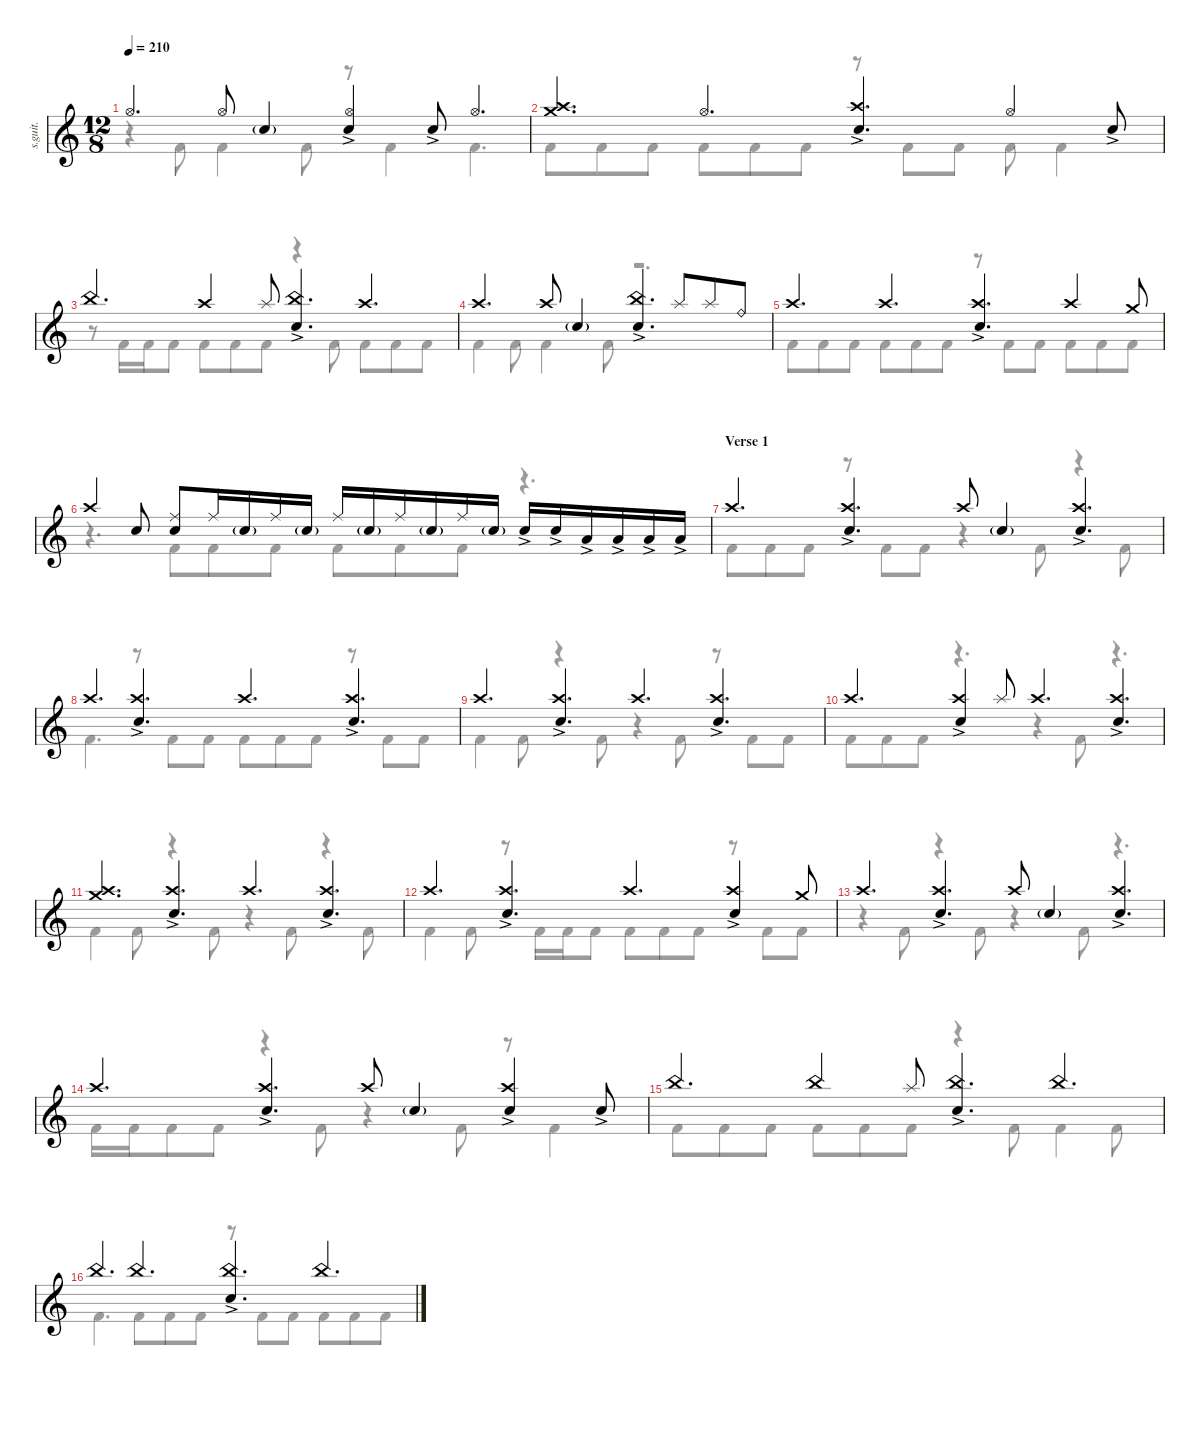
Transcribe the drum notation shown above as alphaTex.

\defaultSystemsLayout 4
\hideDynamics
\bracketExtendMode nobrackets
\track ("Percussion" "s.guit.") {instrument percussion}
\staff {score}
\articulation defaults
\voice
\ts (12 8)
\tempo 210
\clef g2
\ks c "Hi-Hat (open)".4{d lyrics (0 "") lyrics (1 "") lyrics (2 "") lyrics (3 "") lyrics (4 "") dy f} "Hi-Hat (open)".8{lyrics (0 "") lyrics (1 "") lyrics (2 "") lyrics (3 "") lyrics (4 "")} "Snare (hit) 2"{g}.4{lyrics (0 "") lyrics (1 "") lyrics (2 "") lyrics (3 "") lyrics (4 "") dy ff}
("Hi-Hat (open)" "Snare (hit) 2"{ac}).4{lyrics (0 "") lyrics (1 "") lyrics (2 "") lyrics (3 "") lyrics (4 "") dy f} "Snare (hit) 2"{ac}.8{lyrics (0 "") lyrics (1 "") lyrics (2 "") lyrics (3 "") lyrics (4 "") dy mf} "Hi-Hat (open)".4{d lyrics (0 "") lyrics (1 "") lyrics (2 "") lyrics (3 "") lyrics (4 "") dy f} |
("Crash high (hit)" "Crash medium (hit)").4{d lyrics (0 "") lyrics (1 "") lyrics (2 "") lyrics (3 "") lyrics (4 "")} "Hi-Hat (open)".4{d lyrics (0 "") lyrics (1 "") lyrics (2 "") lyrics (3 "") lyrics (4 "")} ("Snare (hit) 2"{ac} "Crash high (hit)").4{d lyrics (0 "") lyrics (1 "") lyrics (2 "") lyrics (3 "") lyrics (4 "")} "Hi-Hat (open)".4{lyrics (0 "") lyrics (1 "") lyrics (2 "") lyrics (3 "") lyrics (4 "")} "Snare (hit) 2"{ac}.8{lyrics (0 "") lyrics (1 "") lyrics (2 "") lyrics (3 "") lyrics (4 "") dy mf} |
"China (hit)".4{d lyrics (0 "") lyrics (1 "") lyrics (2 "") lyrics (3 "") lyrics (4 "") dy f} "Crash high (hit)".4{lyrics (0 "") lyrics (1 "") lyrics (2 "") lyrics (3 "") lyrics (4 "")} "Splash (hit)".8{lyrics (0 "") lyrics (1 "") lyrics (2 "") lyrics (3 "") lyrics (4 "")} ("China (hit)" "Snare (hit) 2"{ac}).4{d lyrics (0 "") lyrics (1 "") lyrics (2 "") lyrics (3 "") lyrics (4 "")} "Crash high (hit)".4{d lyrics (0 "") lyrics (1 "") lyrics (2 "") lyrics (3 "") lyrics (4 "")} |
"Crash high (hit)".4{d lyrics (0 "") lyrics (1 "") lyrics (2 "") lyrics (3 "") lyrics (4 "")} "Crash high (hit)".8{lyrics (0 "") lyrics (1 "") lyrics (2 "") lyrics (3 "") lyrics (4 "")} "Snare (hit) 2"{g}.4{lyrics (0 "") lyrics (1 "") lyrics (2 "") lyrics (3 "") lyrics (4 "") dy ff} ("Snare (hit) 2"{ac} "China (hit)").4{d lyrics (0 "") lyrics (1 "") lyrics (2 "") lyrics (3 "") lyrics (4 "") dy f} "Splash (hit)".8{lyrics (0 "") lyrics (1 "") lyrics (2 "") lyrics (3 "") lyrics (4 "")} "Splash (hit)".8{lyrics (0 "") lyrics (1 "") lyrics (2 "") lyrics (3 "") lyrics (4 "")} "Ride (bell)".8{lyrics (0 "") lyrics (1 "") lyrics (2 "") lyrics (3 "") lyrics (4 "")} |
"Crash high (hit)".4{d lyrics (0 "") lyrics (1 "") lyrics (2 "") lyrics (3 "") lyrics (4 "")} "Crash high (hit)".4{d lyrics (0 "") lyrics (1 "") lyrics (2 "") lyrics (3 "") lyrics (4 "")} ("Crash high (hit)" "Snare (hit) 2"{ac}).4{d lyrics (0 "") lyrics (1 "") lyrics (2 "") lyrics (3 "") lyrics (4 "")} "Crash high (hit)".4{lyrics (0 "") lyrics (1 "") lyrics (2 "") lyrics (3 "") lyrics (4 "")} "Crash medium (hit)".8{lyrics (0 "") lyrics (1 "") lyrics (2 "") lyrics (3 "") lyrics (4 "")} |
"Crash high (hit)".4{lyrics (0 "") lyrics (1 "") lyrics (2 "") lyrics (3 "") lyrics (4 "")} "Snare (hit) 2".8{lyrics (0 "") lyrics (1 "") lyrics (2 "") lyrics (3 "") lyrics (4 "")} ("Snare (hit) 2" "Ride (middle)").8{lyrics (0 "") lyrics (1 "") lyrics (2 "") lyrics (3 "") lyrics (4 "")} "Ride (middle)".16{lyrics (0 "") lyrics (1 "") lyrics (2 "") lyrics (3 "") lyrics (4 "")} "Snare (hit) 2"{g}.16{lyrics (0 "") lyrics (1 "") lyrics (2 "") lyrics (3 "") lyrics (4 "") dy ff} "Ride (middle)".16{lyrics (0 "") lyrics (1 "") lyrics (2 "") lyrics (3 "") lyrics (4 "") dy f} "Snare (hit) 2"{g}.16{lyrics (0 "") lyrics (1 "") lyrics (2 "") lyrics (3 "") lyrics (4 "") dy ff} "Ride (middle)".16{lyrics (0 "") lyrics (1 "") lyrics (2 "") lyrics (3 "") lyrics (4 "") dy f} "Snare (hit) 2"{g}.16{lyrics (0 "") lyrics (1 "") lyrics (2 "") lyrics (3 "") lyrics (4 "") dy ff} "Ride (middle)".16{lyrics (0 "") lyrics (1 "") lyrics (2 "") lyrics (3 "") lyrics (4 "") dy f} "Snare (hit) 2"{g}.16{lyrics (0 "") lyrics (1 "") lyrics (2 "") lyrics (3 "") lyrics (4 "") dy ff} "Ride (middle)".16{lyrics (0 "") lyrics (1 "") lyrics (2 "") lyrics (3 "") lyrics (4 "") dy f} "Snare (hit) 2"{g}.16{lyrics (0 "") lyrics (1 "") lyrics (2 "") lyrics (3 "") lyrics (4 "") dy ff} "Snare (hit) 2"{ac}.16{lyrics (0 "") lyrics (1 "") lyrics (2 "") lyrics (3 "") lyrics (4 "") dy mf} "Snare (hit) 2"{ac}.16{lyrics (0 "") lyrics (1 "") lyrics (2 "") lyrics (3 "") lyrics (4 "")} "Low Tom (hit)"{ac}.16{lyrics (0 "") lyrics (1 "") lyrics (2 "") lyrics (3 "") lyrics (4 "")} "Low Tom (hit)"{ac}.16{lyrics (0 "") lyrics (1 "") lyrics (2 "") lyrics (3 "") lyrics (4 "")} "Low Tom (hit)"{ac}.16{lyrics (0 "") lyrics (1 "") lyrics (2 "") lyrics (3 "") lyrics (4 "")} "Low Tom (hit)"{ac}.16{lyrics (0 "") lyrics (1 "") lyrics (2 "") lyrics (3 "") lyrics (4 "")} |
\section ("" "Verse 1")
"Crash high (hit)".4{d lyrics (0 "") lyrics (1 "") lyrics (2 "") lyrics (3 "") lyrics (4 "") dy f} ("Crash high (hit)" "Snare (hit) 2"{ac}).4{d lyrics (0 "") lyrics (1 "") lyrics (2 "") lyrics (3 "") lyrics (4 "")} "Crash high (hit)".8{lyrics (0 "") lyrics (1 "") lyrics (2 "") lyrics (3 "") lyrics (4 "")} "Snare (hit) 2"{g}.4{lyrics (0 "") lyrics (1 "") lyrics (2 "") lyrics (3 "") lyrics (4 "") dy ff} ("Snare (hit) 2"{ac} "Crash high (hit)").4{d lyrics (0 "") lyrics (1 "") lyrics (2 "") lyrics (3 "") lyrics (4 "") dy f} |
"Crash high (hit)".4{d lyrics (0 "") lyrics (1 "") lyrics (2 "") lyrics (3 "") lyrics (4 "")} ("Crash high (hit)" "Snare (hit) 2"{ac}).4{d lyrics (0 "") lyrics (1 "") lyrics (2 "") lyrics (3 "") lyrics (4 "")} "Crash high (hit)".4{d lyrics (0 "") lyrics (1 "") lyrics (2 "") lyrics (3 "") lyrics (4 "")} ("Crash high (hit)" "Snare (hit) 2"{ac}).4{d lyrics (0 "") lyrics (1 "") lyrics (2 "") lyrics (3 "") lyrics (4 "")} |
"Crash high (hit)".4{d lyrics (0 "") lyrics (1 "") lyrics (2 "") lyrics (3 "") lyrics (4 "")} ("Crash high (hit)" "Snare (hit) 2"{ac}).4{d lyrics (0 "") lyrics (1 "") lyrics (2 "") lyrics (3 "") lyrics (4 "")} "Crash high (hit)".4{d lyrics (0 "") lyrics (1 "") lyrics (2 "") lyrics (3 "") lyrics (4 "")} ("Crash high (hit)" "Snare (hit) 2"{ac}).4{d lyrics (0 "") lyrics (1 "") lyrics (2 "") lyrics (3 "") lyrics (4 "")} |
"Crash high (hit)".4{d lyrics (0 "") lyrics (1 "") lyrics (2 "") lyrics (3 "") lyrics (4 "")} ("Crash high (hit)" "Snare (hit) 2"{ac}).4{lyrics (0 "") lyrics (1 "") lyrics (2 "") lyrics (3 "") lyrics (4 "")} "Splash (hit)".8{lyrics (0 "") lyrics (1 "") lyrics (2 "") lyrics (3 "") lyrics (4 "")} "Crash high (hit)".4{d lyrics (0 "") lyrics (1 "") lyrics (2 "") lyrics (3 "") lyrics (4 "")} ("Crash high (hit)" "Snare (hit) 2"{ac}).4{d lyrics (0 "") lyrics (1 "") lyrics (2 "") lyrics (3 "") lyrics (4 "")} |
("Crash high (hit)" "Crash medium (hit)").4{d lyrics (0 "") lyrics (1 "") lyrics (2 "") lyrics (3 "") lyrics (4 "")} ("Crash high (hit)" "Snare (hit) 2"{ac}).4{d lyrics (0 "") lyrics (1 "") lyrics (2 "") lyrics (3 "") lyrics (4 "")} "Crash high (hit)".4{d lyrics (0 "") lyrics (1 "") lyrics (2 "") lyrics (3 "") lyrics (4 "")} ("Crash high (hit)" "Snare (hit) 2"{ac}).4{d lyrics (0 "") lyrics (1 "") lyrics (2 "") lyrics (3 "") lyrics (4 "")} |
"Crash high (hit)".4{d lyrics (0 "") lyrics (1 "") lyrics (2 "") lyrics (3 "") lyrics (4 "")} ("Crash high (hit)" "Snare (hit) 2"{ac}).4{d lyrics (0 "") lyrics (1 "") lyrics (2 "") lyrics (3 "") lyrics (4 "")} "Crash high (hit)".4{d lyrics (0 "") lyrics (1 "") lyrics (2 "") lyrics (3 "") lyrics (4 "")} ("Crash high (hit)" "Snare (hit) 2"{ac}).4{lyrics (0 "") lyrics (1 "") lyrics (2 "") lyrics (3 "") lyrics (4 "")} "Crash medium (hit)".8{lyrics (0 "") lyrics (1 "") lyrics (2 "") lyrics (3 "") lyrics (4 "")} |
"Crash high (hit)".4{d lyrics (0 "") lyrics (1 "") lyrics (2 "") lyrics (3 "") lyrics (4 "")} ("Crash high (hit)" "Snare (hit) 2"{ac}).4{d lyrics (0 "") lyrics (1 "") lyrics (2 "") lyrics (3 "") lyrics (4 "")} "Crash high (hit)".8{lyrics (0 "") lyrics (1 "") lyrics (2 "") lyrics (3 "") lyrics (4 "")} "Snare (hit) 2"{g}.4{lyrics (0 "") lyrics (1 "") lyrics (2 "") lyrics (3 "") lyrics (4 "") dy ff} ("Snare (hit) 2"{ac} "Crash high (hit)").4{d lyrics (0 "") lyrics (1 "") lyrics (2 "") lyrics (3 "") lyrics (4 "") dy f} |
"Crash high (hit)".4{d lyrics (0 "") lyrics (1 "") lyrics (2 "") lyrics (3 "") lyrics (4 "")} ("Crash high (hit)" "Snare (hit) 2"{ac}).4{d lyrics (0 "") lyrics (1 "") lyrics (2 "") lyrics (3 "") lyrics (4 "")} "Crash high (hit)".8{lyrics (0 "") lyrics (1 "") lyrics (2 "") lyrics (3 "") lyrics (4 "")} "Snare (hit) 2"{g}.4{lyrics (0 "") lyrics (1 "") lyrics (2 "") lyrics (3 "") lyrics (4 "") dy ff} ("Crash high (hit)" "Snare (hit) 2"{ac}).4{lyrics (0 "") lyrics (1 "") lyrics (2 "") lyrics (3 "") lyrics (4 "") dy f} "Snare (hit) 2"{ac}.8{lyrics (0 "") lyrics (1 "") lyrics (2 "") lyrics (3 "") lyrics (4 "") dy mf} |
"China (hit)".4{d lyrics (0 "") lyrics (1 "") lyrics (2 "") lyrics (3 "") lyrics (4 "") dy f} "China (hit)".4{lyrics (0 "") lyrics (1 "") lyrics (2 "") lyrics (3 "") lyrics (4 "")} "Splash (hit)".8{lyrics (0 "") lyrics (1 "") lyrics (2 "") lyrics (3 "") lyrics (4 "")} ("China (hit)" "Snare (hit) 2"{ac}).4{d lyrics (0 "") lyrics (1 "") lyrics (2 "") lyrics (3 "") lyrics (4 "")} "China (hit)".4{d lyrics (0 "") lyrics (1 "") lyrics (2 "") lyrics (3 "") lyrics (4 "")} |
"China (hit)".4{d lyrics (0 "") lyrics (1 "") lyrics (2 "") lyrics (3 "") lyrics (4 "")} "China (hit)".4{d lyrics (0 "") lyrics (1 "") lyrics (2 "") lyrics (3 "") lyrics (4 "")} ("China (hit)" "Snare (hit) 2"{ac}).4{d lyrics (0 "") lyrics (1 "") lyrics (2 "") lyrics (3 "") lyrics (4 "")} "China (hit)".4{d lyrics (0 "") lyrics (1 "") lyrics (2 "") lyrics (3 "") lyrics (4 "")}
\voice
\clef g2
\ottava regular
\simile none
\ks c
r.4{dy f} "Kick (hit) 2".8{lyrics (0 "") lyrics (1 "") lyrics (2 "") lyrics (3 "") lyrics (4 "")} "Kick (hit) 2".4{lyrics (0 "") lyrics (1 "") lyrics (2 "") lyrics (3 "") lyrics (4 "")} "Kick (hit) 2".8{lyrics (0 "") lyrics (1 "") lyrics (2 "") lyrics (3 "") lyrics (4 "")} r.8 "Kick (hit) 2".4{lyrics (0 "") lyrics (1 "") lyrics (2 "") lyrics (3 "") lyrics (4 "")} "Kick (hit) 2".4{d lyrics (0 "") lyrics (1 "") lyrics (2 "") lyrics (3 "") lyrics (4 "")} |
"Kick (hit) 2".8{lyrics (0 "") lyrics (1 "") lyrics (2 "") lyrics (3 "") lyrics (4 "")} "Kick (hit) 2".8{lyrics (0 "") lyrics (1 "") lyrics (2 "") lyrics (3 "") lyrics (4 "")} "Kick (hit) 2".8{lyrics (0 "") lyrics (1 "") lyrics (2 "") lyrics (3 "") lyrics (4 "")} "Kick (hit) 2".8{lyrics (0 "") lyrics (1 "") lyrics (2 "") lyrics (3 "") lyrics (4 "")} "Kick (hit) 2".8{lyrics (0 "") lyrics (1 "") lyrics (2 "") lyrics (3 "") lyrics (4 "")} "Kick (hit) 2".8{lyrics (0 "") lyrics (1 "") lyrics (2 "") lyrics (3 "") lyrics (4 "")} r.8 "Kick (hit) 2".8{lyrics (0 "") lyrics (1 "") lyrics (2 "") lyrics (3 "") lyrics (4 "")} "Kick (hit) 2".8{lyrics (0 "") lyrics (1 "") lyrics (2 "") lyrics (3 "") lyrics (4 "")} "Kick (hit) 2".8{lyrics (0 "") lyrics (1 "") lyrics (2 "") lyrics (3 "") lyrics (4 "")} "Kick (hit) 2".4{lyrics (0 "") lyrics (1 "") lyrics (2 "") lyrics (3 "") lyrics (4 "")} |
r.8 "Kick (hit) 2".16{lyrics (0 "") lyrics (1 "") lyrics (2 "") lyrics (3 "") lyrics (4 "")} "Kick (hit) 2".16{lyrics (0 "") lyrics (1 "") lyrics (2 "") lyrics (3 "") lyrics (4 "")} "Kick (hit) 2".8{lyrics (0 "") lyrics (1 "") lyrics (2 "") lyrics (3 "") lyrics (4 "")} "Kick (hit) 2".8{lyrics (0 "") lyrics (1 "") lyrics (2 "") lyrics (3 "") lyrics (4 "")} "Kick (hit) 2".8{lyrics (0 "") lyrics (1 "") lyrics (2 "") lyrics (3 "") lyrics (4 "")} "Kick (hit) 2".8{lyrics (0 "") lyrics (1 "") lyrics (2 "") lyrics (3 "") lyrics (4 "")} r.4 "Kick (hit) 2".8{lyrics (0 "") lyrics (1 "") lyrics (2 "") lyrics (3 "") lyrics (4 "")} "Kick (hit) 2".8{lyrics (0 "") lyrics (1 "") lyrics (2 "") lyrics (3 "") lyrics (4 "")} "Kick (hit) 2".8{lyrics (0 "") lyrics (1 "") lyrics (2 "") lyrics (3 "") lyrics (4 "")} "Kick (hit) 2".8{lyrics (0 "") lyrics (1 "") lyrics (2 "") lyrics (3 "") lyrics (4 "")} |
"Kick (hit) 2".4{lyrics (0 "") lyrics (1 "") lyrics (2 "") lyrics (3 "") lyrics (4 "")} "Kick (hit) 2".8{lyrics (0 "") lyrics (1 "") lyrics (2 "") lyrics (3 "") lyrics (4 "")} "Kick (hit) 2".4{lyrics (0 "") lyrics (1 "") lyrics (2 "") lyrics (3 "") lyrics (4 "")} "Kick (hit) 2".8{lyrics (0 "") lyrics (1 "") lyrics (2 "") lyrics (3 "") lyrics (4 "")} r.2{d} |
"Kick (hit) 2".8{lyrics (0 "") lyrics (1 "") lyrics (2 "") lyrics (3 "") lyrics (4 "")} "Kick (hit) 2".8{lyrics (0 "") lyrics (1 "") lyrics (2 "") lyrics (3 "") lyrics (4 "")} "Kick (hit) 2".8{lyrics (0 "") lyrics (1 "") lyrics (2 "") lyrics (3 "") lyrics (4 "")} "Kick (hit) 2".8{lyrics (0 "") lyrics (1 "") lyrics (2 "") lyrics (3 "") lyrics (4 "")} "Kick (hit) 2".8{lyrics (0 "") lyrics (1 "") lyrics (2 "") lyrics (3 "") lyrics (4 "")} "Kick (hit) 2".8{lyrics (0 "") lyrics (1 "") lyrics (2 "") lyrics (3 "") lyrics (4 "")} r.8 "Kick (hit) 2".8{lyrics (0 "") lyrics (1 "") lyrics (2 "") lyrics (3 "") lyrics (4 "")} "Kick (hit) 2".8{lyrics (0 "") lyrics (1 "") lyrics (2 "") lyrics (3 "") lyrics (4 "")} "Kick (hit) 2".8{lyrics (0 "") lyrics (1 "") lyrics (2 "") lyrics (3 "") lyrics (4 "")} "Kick (hit) 2".8{lyrics (0 "") lyrics (1 "") lyrics (2 "") lyrics (3 "") lyrics (4 "")} "Kick (hit) 2".8{lyrics (0 "") lyrics (1 "") lyrics (2 "") lyrics (3 "") lyrics (4 "")} |
r.4{d} "Kick (hit) 2".8{lyrics (0 "") lyrics (1 "") lyrics (2 "") lyrics (3 "") lyrics (4 "")} "Kick (hit) 2".8{lyrics (0 "") lyrics (1 "") lyrics (2 "") lyrics (3 "") lyrics (4 "")} "Kick (hit) 2".8{lyrics (0 "") lyrics (1 "") lyrics (2 "") lyrics (3 "") lyrics (4 "")} "Kick (hit) 2".8{lyrics (0 "") lyrics (1 "") lyrics (2 "") lyrics (3 "") lyrics (4 "")} "Kick (hit) 2".8{lyrics (0 "") lyrics (1 "") lyrics (2 "") lyrics (3 "") lyrics (4 "")} "Kick (hit) 2".8{lyrics (0 "") lyrics (1 "") lyrics (2 "") lyrics (3 "") lyrics (4 "")} r.4{d} |
"Kick (hit) 2".8{lyrics (0 "") lyrics (1 "") lyrics (2 "") lyrics (3 "") lyrics (4 "")} "Kick (hit) 2".8{lyrics (0 "") lyrics (1 "") lyrics (2 "") lyrics (3 "") lyrics (4 "")} "Kick (hit) 2".8{lyrics (0 "") lyrics (1 "") lyrics (2 "") lyrics (3 "") lyrics (4 "")} r.8 "Kick (hit) 2".8{lyrics (0 "") lyrics (1 "") lyrics (2 "") lyrics (3 "") lyrics (4 "")} "Kick (hit) 2".8{lyrics (0 "") lyrics (1 "") lyrics (2 "") lyrics (3 "") lyrics (4 "")} r.4 "Kick (hit) 2".8{lyrics (0 "") lyrics (1 "") lyrics (2 "") lyrics (3 "") lyrics (4 "")} r.4 "Kick (hit) 2".8{lyrics (0 "") lyrics (1 "") lyrics (2 "") lyrics (3 "") lyrics (4 "")} |
"Kick (hit) 2".4{d lyrics (0 "") lyrics (1 "") lyrics (2 "") lyrics (3 "") lyrics (4 "")} r.8 "Kick (hit) 2".8{lyrics (0 "") lyrics (1 "") lyrics (2 "") lyrics (3 "") lyrics (4 "")} "Kick (hit) 2".8{lyrics (0 "") lyrics (1 "") lyrics (2 "") lyrics (3 "") lyrics (4 "")} "Kick (hit) 2".8{lyrics (0 "") lyrics (1 "") lyrics (2 "") lyrics (3 "") lyrics (4 "")} "Kick (hit) 2".8{lyrics (0 "") lyrics (1 "") lyrics (2 "") lyrics (3 "") lyrics (4 "")} "Kick (hit) 2".8{lyrics (0 "") lyrics (1 "") lyrics (2 "") lyrics (3 "") lyrics (4 "")} r.8 "Kick (hit) 2".8{lyrics (0 "") lyrics (1 "") lyrics (2 "") lyrics (3 "") lyrics (4 "")} "Kick (hit) 2".8{lyrics (0 "") lyrics (1 "") lyrics (2 "") lyrics (3 "") lyrics (4 "")} |
"Kick (hit) 2".4{lyrics (0 "") lyrics (1 "") lyrics (2 "") lyrics (3 "") lyrics (4 "")} "Kick (hit) 2".8{lyrics (0 "") lyrics (1 "") lyrics (2 "") lyrics (3 "") lyrics (4 "")} r.4 "Kick (hit) 2".8{lyrics (0 "") lyrics (1 "") lyrics (2 "") lyrics (3 "") lyrics (4 "")} r.4 "Kick (hit) 2".8{lyrics (0 "") lyrics (1 "") lyrics (2 "") lyrics (3 "") lyrics (4 "")} r.8 "Kick (hit) 2".8{lyrics (0 "") lyrics (1 "") lyrics (2 "") lyrics (3 "") lyrics (4 "")} "Kick (hit) 2".8{lyrics (0 "") lyrics (1 "") lyrics (2 "") lyrics (3 "") lyrics (4 "")} |
"Kick (hit) 2".8{lyrics (0 "") lyrics (1 "") lyrics (2 "") lyrics (3 "") lyrics (4 "")} "Kick (hit) 2".8{lyrics (0 "") lyrics (1 "") lyrics (2 "") lyrics (3 "") lyrics (4 "")} "Kick (hit) 2".8{lyrics (0 "") lyrics (1 "") lyrics (2 "") lyrics (3 "") lyrics (4 "")} r.4{d} r.4 "Kick (hit) 2".8{lyrics (0 "") lyrics (1 "") lyrics (2 "") lyrics (3 "") lyrics (4 "")} r.4{d} |
"Kick (hit) 2".4{lyrics (0 "") lyrics (1 "") lyrics (2 "") lyrics (3 "") lyrics (4 "")} "Kick (hit) 2".8{lyrics (0 "") lyrics (1 "") lyrics (2 "") lyrics (3 "") lyrics (4 "")} r.4 "Kick (hit) 2".8{lyrics (0 "") lyrics (1 "") lyrics (2 "") lyrics (3 "") lyrics (4 "")} r.4 "Kick (hit) 2".8{lyrics (0 "") lyrics (1 "") lyrics (2 "") lyrics (3 "") lyrics (4 "")} r.4 "Kick (hit) 2".8{lyrics (0 "") lyrics (1 "") lyrics (2 "") lyrics (3 "") lyrics (4 "")} |
"Kick (hit) 2".4{lyrics (0 "") lyrics (1 "") lyrics (2 "") lyrics (3 "") lyrics (4 "")} "Kick (hit) 2".8{lyrics (0 "") lyrics (1 "") lyrics (2 "") lyrics (3 "") lyrics (4 "")} r.8 "Kick (hit) 2".16{lyrics (0 "") lyrics (1 "") lyrics (2 "") lyrics (3 "") lyrics (4 "")} "Kick (hit) 2".16{lyrics (0 "") lyrics (1 "") lyrics (2 "") lyrics (3 "") lyrics (4 "")} "Kick (hit) 2".8{lyrics (0 "") lyrics (1 "") lyrics (2 "") lyrics (3 "") lyrics (4 "")} "Kick (hit) 2".8{lyrics (0 "") lyrics (1 "") lyrics (2 "") lyrics (3 "") lyrics (4 "")} "Kick (hit) 2".8{lyrics (0 "") lyrics (1 "") lyrics (2 "") lyrics (3 "") lyrics (4 "")} "Kick (hit) 2".8{lyrics (0 "") lyrics (1 "") lyrics (2 "") lyrics (3 "") lyrics (4 "")} r.8 "Kick (hit) 2".8{lyrics (0 "") lyrics (1 "") lyrics (2 "") lyrics (3 "") lyrics (4 "")} "Kick (hit) 2".8{lyrics (0 "") lyrics (1 "") lyrics (2 "") lyrics (3 "") lyrics (4 "")} |
r.4 "Kick (hit) 2".8{lyrics (0 "") lyrics (1 "") lyrics (2 "") lyrics (3 "") lyrics (4 "")} r.4 "Kick (hit) 2".8{lyrics (0 "") lyrics (1 "") lyrics (2 "") lyrics (3 "") lyrics (4 "")} r.4 "Kick (hit) 2".8{lyrics (0 "") lyrics (1 "") lyrics (2 "") lyrics (3 "") lyrics (4 "")} r.4{d} |
"Kick (hit) 2".16{lyrics (0 "") lyrics (1 "") lyrics (2 "") lyrics (3 "") lyrics (4 "")} "Kick (hit) 2".16{lyrics (0 "") lyrics (1 "") lyrics (2 "") lyrics (3 "") lyrics (4 "")} "Kick (hit) 2".8{lyrics (0 "") lyrics (1 "") lyrics (2 "") lyrics (3 "") lyrics (4 "")} "Kick (hit) 2".8{lyrics (0 "") lyrics (1 "") lyrics (2 "") lyrics (3 "") lyrics (4 "")} r.4 "Kick (hit) 2".8{lyrics (0 "") lyrics (1 "") lyrics (2 "") lyrics (3 "") lyrics (4 "")} r.4 "Kick (hit) 2".8{lyrics (0 "") lyrics (1 "") lyrics (2 "") lyrics (3 "") lyrics (4 "")} r.8 "Kick (hit) 2".4{lyrics (0 "") lyrics (1 "") lyrics (2 "") lyrics (3 "") lyrics (4 "")} |
"Kick (hit) 2".8{lyrics (0 "") lyrics (1 "") lyrics (2 "") lyrics (3 "") lyrics (4 "")} "Kick (hit) 2".8{lyrics (0 "") lyrics (1 "") lyrics (2 "") lyrics (3 "") lyrics (4 "")} "Kick (hit) 2".8{lyrics (0 "") lyrics (1 "") lyrics (2 "") lyrics (3 "") lyrics (4 "")} "Kick (hit) 2".8{lyrics (0 "") lyrics (1 "") lyrics (2 "") lyrics (3 "") lyrics (4 "")} "Kick (hit) 2".8{lyrics (0 "") lyrics (1 "") lyrics (2 "") lyrics (3 "") lyrics (4 "")} "Kick (hit) 2".8{lyrics (0 "") lyrics (1 "") lyrics (2 "") lyrics (3 "") lyrics (4 "")} r.4 "Kick (hit) 2".8{lyrics (0 "") lyrics (1 "") lyrics (2 "") lyrics (3 "") lyrics (4 "")} "Kick (hit) 2".4{lyrics (0 "") lyrics (1 "") lyrics (2 "") lyrics (3 "") lyrics (4 "")} "Kick (hit) 2".8{lyrics (0 "") lyrics (1 "") lyrics (2 "") lyrics (3 "") lyrics (4 "")} |
"Kick (hit) 2".4{d lyrics (0 "") lyrics (1 "") lyrics (2 "") lyrics (3 "") lyrics (4 "")} "Kick (hit) 2".8{lyrics (0 "") lyrics (1 "") lyrics (2 "") lyrics (3 "") lyrics (4 "")} "Kick (hit) 2".8{lyrics (0 "") lyrics (1 "") lyrics (2 "") lyrics (3 "") lyrics (4 "")} "Kick (hit) 2".8{lyrics (0 "") lyrics (1 "") lyrics (2 "") lyrics (3 "") lyrics (4 "")} r.8 "Kick (hit) 2".8{lyrics (0 "") lyrics (1 "") lyrics (2 "") lyrics (3 "") lyrics (4 "")} "Kick (hit) 2".8{lyrics (0 "") lyrics (1 "") lyrics (2 "") lyrics (3 "") lyrics (4 "")} "Kick (hit) 2".8{lyrics (0 "") lyrics (1 "") lyrics (2 "") lyrics (3 "") lyrics (4 "")} "Kick (hit) 2".8{lyrics (0 "") lyrics (1 "") lyrics (2 "") lyrics (3 "") lyrics (4 "")} "Kick (hit) 2".8{lyrics (0 "") lyrics (1 "") lyrics (2 "") lyrics (3 "") lyrics (4 "")}
